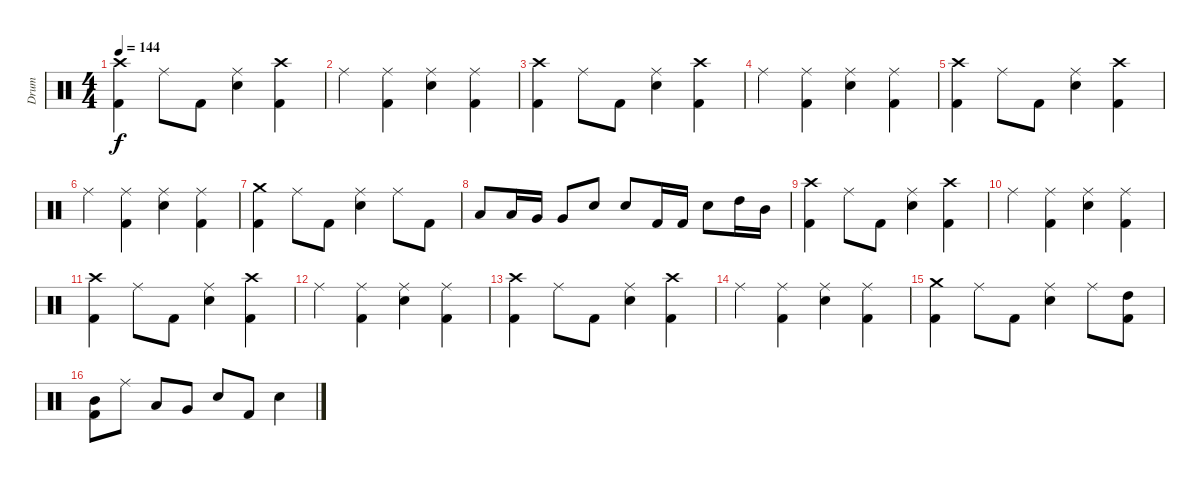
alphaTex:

\track ("Drum" "Drum") {instrument percussion}
\staff {score}
\articulation defaults
\ts (4 4)
\tempo 144
\clef neutral
\ks c
("Crash high (hit)" "Kick (hit) 2").4{dy f} "Ride (middle)".8 "Kick (hit) 2".8 ("Ride (middle)" "Electric Snare (hit)").4 ("Crash high (hit)" "Kick (hit) 2").4 |
"Ride (middle)".4 ("Ride (middle)" "Kick (hit) 2").4 ("Ride (middle)" "Electric Snare (hit)").4 ("Ride (middle)" "Kick (hit) 2").4 |
("Crash high (hit)" "Kick (hit) 2").4 "Ride (middle)".8 "Kick (hit) 2".8 ("Ride (middle)" "Electric Snare (hit)").4 ("Crash high (hit)" "Kick (hit) 2").4 |
"Ride (middle)".4 ("Ride (middle)" "Kick (hit) 2").4 ("Ride (middle)" "Electric Snare (hit)").4 ("Ride (middle)" "Kick (hit) 2").4 |
("Crash high (hit)" "Kick (hit) 2").4 "Ride (middle)".8 "Kick (hit) 2".8 ("Ride (middle)" "Electric Snare (hit)").4 ("Crash high (hit)" "Kick (hit) 2").4 |
"Ride (middle)".4 ("Ride (middle)" "Kick (hit) 2").4 ("Ride (middle)" "Electric Snare (hit)").4 ("Ride (middle)" "Kick (hit) 2").4 |
("Crash medium (hit)" "Kick (hit) 2").4 "Ride (middle)".8 "Kick (hit) 2".8 ("Ride (middle)" "Electric Snare (hit)").4 "Ride (middle)".8 "Kick (hit) 2".8 |
"Low Tom (hit)".8 "Low Tom (hit)".16 "Very Low Tom (hit)".16 "Very Low Tom (hit)".8 "Electric Snare (hit)".8 "Electric Snare (hit)".8 "Kick (hit) 2".16 "Kick (hit) 2".16 "Electric Snare (hit)".8 "High Tom (hit)".16 "Mid Tom (hit)".16 |
("Crash high (hit)" "Kick (hit) 2").4 "Ride (middle)".8 "Kick (hit) 2".8 ("Ride (middle)" "Electric Snare (hit)").4 ("Crash high (hit)" "Kick (hit) 2").4 |
"Ride (middle)".4 ("Ride (middle)" "Kick (hit) 2").4 ("Ride (middle)" "Electric Snare (hit)").4 ("Ride (middle)" "Kick (hit) 2").4 |
("Crash high (hit)" "Kick (hit) 2").4 "Ride (middle)".8 "Kick (hit) 2".8 ("Ride (middle)" "Electric Snare (hit)").4 ("Crash high (hit)" "Kick (hit) 2").4 |
"Ride (middle)".4 ("Ride (middle)" "Kick (hit) 2").4 ("Ride (middle)" "Electric Snare (hit)").4 ("Ride (middle)" "Kick (hit) 2").4 |
("Crash high (hit)" "Kick (hit) 2").4 "Ride (middle)".8 "Kick (hit) 2".8 ("Ride (middle)" "Electric Snare (hit)").4 ("Crash high (hit)" "Kick (hit) 2").4 |
"Ride (middle)".4 ("Ride (middle)" "Kick (hit) 2").4 ("Ride (middle)" "Electric Snare (hit)").4 ("Ride (middle)" "Kick (hit) 2").4 |
("Crash medium (hit)" "Kick (hit) 2").4 "Ride (middle)".8 "Kick (hit) 2".8 ("Ride (middle)" "Electric Snare (hit)").4 "Ride (middle)".8 ("High Tom (hit)" "Kick (hit) 2").8 |
("Mid Tom (hit)" "Kick (hit) 2").8 "Ride (middle)".8 "Low Tom (hit)".8 "Very Low Tom (hit)".8 "Electric Snare (hit)".8 "Kick (hit) 2".8 "Electric Snare (hit)".4
